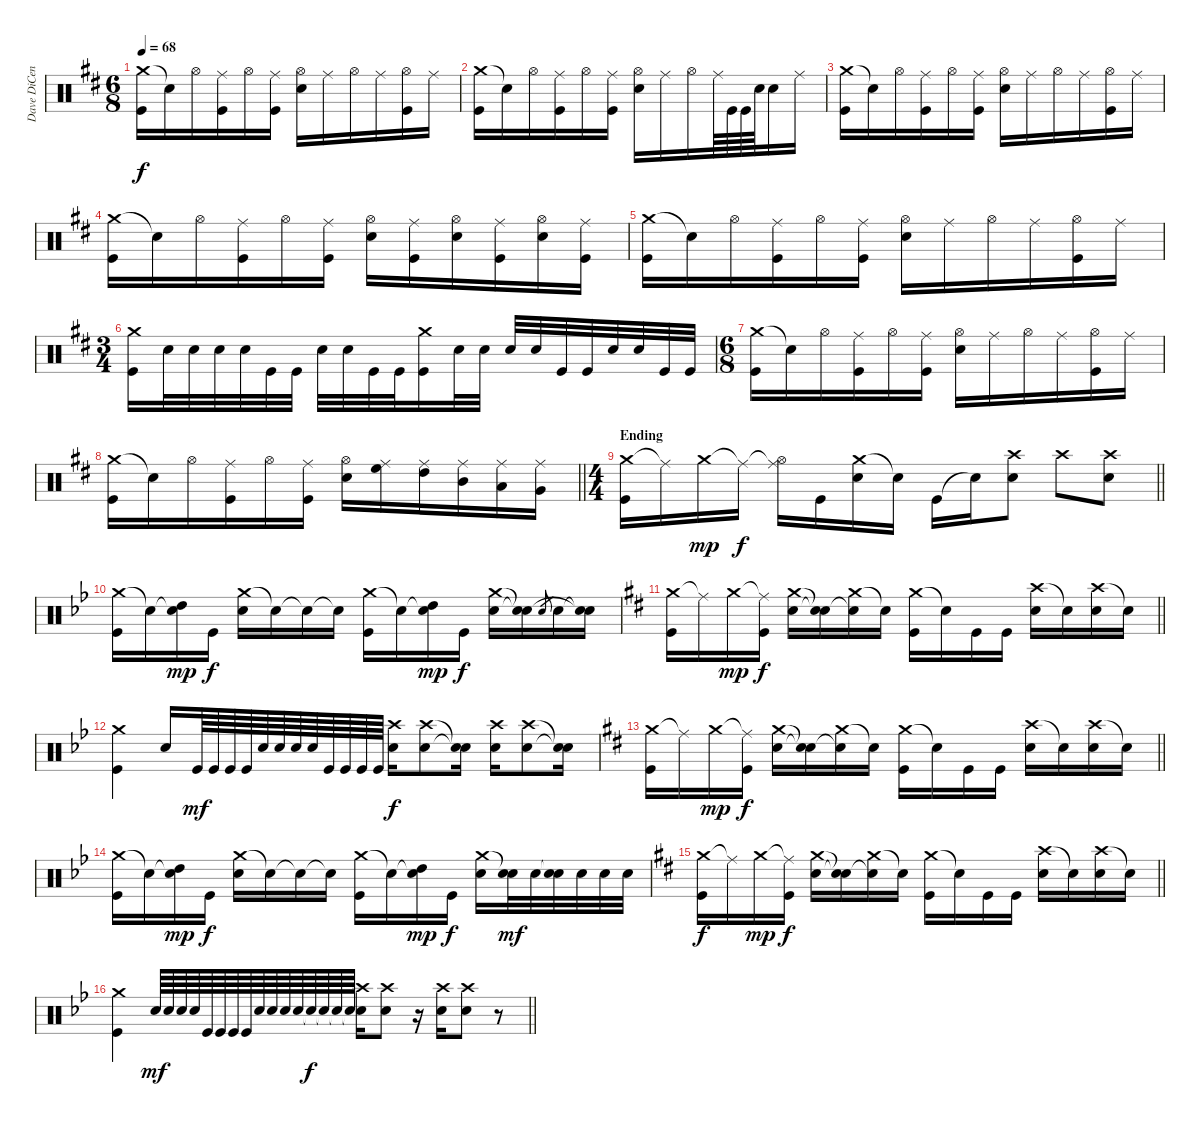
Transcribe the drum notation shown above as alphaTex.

\track ("Dave DiCenso" "Dave DiCen") {instrument percussion}
\staff {score}
\articulation defaults
\ts (6 8)
\tempo 68
\clef neutral
\ks d
("Crash medium (hit)" "Kick (hit)").16{dy f} "Snare (hit)"{t}.16 "Hi-Hat (open)".16 ("Ride (middle)" "Kick (hit)").16 "Hi-Hat (open)".16 ("Ride (middle)" "Kick (hit)").16 ("Hi-Hat (open)" "Electric Snare (hit)").16 "Ride (middle)".16 "Hi-Hat (open)".16 "Ride (middle)".16 ("Hi-Hat (open)" "Kick (hit)").16 "Ride (middle)".16 |
("Crash medium (hit)" "Kick (hit)").16 "Snare (hit)"{t}.16 "Hi-Hat (open)".16 ("Ride (middle)" "Kick (hit)").16 "Hi-Hat (open)".16 ("Ride (middle)" "Kick (hit)").16 ("Hi-Hat (open)" "Electric Snare (hit)").16 "Ride (middle)".16 "Hi-Hat (open)".16 "Ride (middle)".64 "Kick (hit)".64 "Kick (hit)".64 "Electric Snare (hit)".64 "Electric Snare (hit)".16 "Ride (middle)".16 |
("Crash medium (hit)" "Kick (hit)").16 "Snare (hit)"{t}.16 "Hi-Hat (open)".16 ("Ride (middle)" "Kick (hit)").16 "Hi-Hat (open)".16 ("Ride (middle)" "Kick (hit)").16 ("Hi-Hat (open)" "Electric Snare (hit)").16 "Ride (middle)".16 "Hi-Hat (open)".16 "Ride (middle)".16 ("Hi-Hat (open)" "Kick (hit)").16 "Ride (middle)".16 |
("Crash medium (hit)" "Kick (hit)").16 "Snare (hit)"{t}.16 "Hi-Hat (open)".16 ("Ride (middle)" "Kick (hit)").16 "Hi-Hat (open)".16 ("Ride (middle)" "Kick (hit)").16 ("Hi-Hat (open)" "Electric Snare (hit)").16 ("Ride (middle)" "Kick (hit)").16 ("Hi-Hat (open)" "Electric Snare (hit)").16 ("Ride (middle)" "Kick (hit)").16 ("Hi-Hat (open)" "Electric Snare (hit)").16 ("Ride (middle)" "Kick (hit)").16 |
("Crash medium (hit)" "Kick (hit)").16 "Snare (hit)"{t}.16 "Hi-Hat (open)".16 ("Ride (middle)" "Kick (hit)").16 "Hi-Hat (open)".16 ("Ride (middle)" "Kick (hit)").16 ("Hi-Hat (open)" "Electric Snare (hit)").16 "Ride (middle)".16 "Hi-Hat (open)".16 "Ride (middle)".16 ("Hi-Hat (open)" "Kick (hit)").16 "Ride (middle)".16 |
\ts (3 4)
("Crash medium (hit)" "Kick (hit)").16 "Electric Snare (hit)".32 "Electric Snare (hit)".32 "Electric Snare (hit)".32 "Electric Snare (hit)".32 "Kick (hit)".32 "Kick (hit)".32 "Electric Snare (hit)".32 "Electric Snare (hit)".32 "Kick (hit)".32 "Kick (hit)".32 ("Crash medium (hit)" "Kick (hit)").16 "Electric Snare (hit)".32 "Electric Snare (hit)".32 "Electric Snare (hit)".32 "Electric Snare (hit)".32 "Kick (hit)".32 "Kick (hit)".32 "Electric Snare (hit)".32 "Electric Snare (hit)".32 "Kick (hit)".32 "Kick (hit)".32 |
\ts (6 8)
("Crash medium (hit)" "Kick (hit)").16 "Snare (hit)"{t}.16 "Hi-Hat (open)".16 ("Ride (middle)" "Kick (hit)").16 "Hi-Hat (open)".16 ("Ride (middle)" "Kick (hit)").16 ("Hi-Hat (open)" "Electric Snare (hit)").16 "Ride (middle)".16 "Hi-Hat (open)".16 "Ride (middle)".16 ("Hi-Hat (open)" "Kick (hit)").16 "Ride (middle)".16 |
\barLineRight lightlight
("Crash medium (hit)" "Kick (hit)").16 "Snare (hit)"{t}.16 "Hi-Hat (open)".16 ("Ride (middle)" "Kick (hit)").16 "Hi-Hat (open)".16 ("Ride (middle)" "Kick (hit)").16 ("Hi-Hat (open)" "Electric Snare (hit)").16 ("Ride (middle)" "High Floor Tom (hit)").16 ("Ride (middle)" "High Tom (hit)").16 ("Ride (middle)" "Mid Tom (hit)").16 ("Ride (middle)" "Low Tom (hit)").16 ("Ride (middle)" "Very Low Tom (hit)").16 |
\ts (4 4)
\section ("" "Ending")
\barLineRight lightlight
("Crash medium (hit)" "Kick (hit)").16 "Ride (middle)"{t}.16 "Crash medium (hit)".16{dy mp} "Ride (middle)"{t}.16{dy f} ("Ride (middle)"{t} "Hi-Hat (open)").16 "Kick (hit)".16 ("Crash medium (hit)" "Electric Snare (hit)").16 "Snare (hit)"{t}.16 "Kick (hit)".16 "Snare (hit)"{t}.16 ("Crash high (hit)" "Electric Snare (hit)").8 "Crash high (hit)".8 ("Crash high (hit)" "Electric Snare (hit)").8 |
\ks bb
("Crash medium (hit)" "Kick (hit)").16 "Snare (hit)"{t}.16 ("Snare (hit)"{t} "High Tom (hit)").16{dy mp} "Kick (hit)".16{dy f} ("Crash medium (hit)" "Electric Snare (hit)").16 "Snare (hit)"{t}.16 "Snare (hit)"{t}.16 "Snare (hit)"{t}.16 ("Crash medium (hit)" "Kick (hit)").16 "Snare (hit)"{t}.16 ("Snare (hit)"{t} "High Tom (hit)").16{dy mp} "Kick (hit)".16{dy f} ("Crash medium (hit)" "Electric Snare (hit)").16 ("Snare (hit)"{t} "Snare (hit)"{t}).16 "Electric Snare (hit)".8{gr} "Electric Snare (hit)".16 ("Snare (hit)"{t} "Snare (hit)"{t}).16 |
\barLineRight lightlight
\ks d
("Crash medium (hit)" "Kick (hit)").16 "Ride (middle)"{t}.16 "Crash medium (hit)".16{dy mp} ("Ride (middle)"{t} "Kick (hit)").16{dy f} ("Crash medium (hit)" "Electric Snare (hit)").16 ("Snare (hit)"{t} "Snare (hit)"{t}).16 ("Crash medium (hit)" "Electric Snare (hit)"{t}).16 "Snare (hit)"{t}.16 ("Crash medium (hit)" "Kick (hit)").16 "Snare (hit)"{t}.16 "Kick (hit)".16 "Kick (hit)".16 ("Crash high (hit)" "Electric Snare (hit)").16 "Snare (hit)"{t}.16 ("Crash high (hit)" "Electric Snare (hit)").16 "Snare (hit)"{t}.16 |
\ks bb
("Crash medium (hit)" "Kick (hit)").4 "Electric Snare (hit)".16 "Kick (hit)".64{dy mf} "Kick (hit)".64 "Kick (hit)".64 "Kick (hit)".64 "Electric Snare (hit)".64 "Electric Snare (hit)".64 "Electric Snare (hit)".64 "Electric Snare (hit)".64 "Kick (hit)".64 "Kick (hit)".64 "Kick (hit)".64 "Kick (hit)".64 ("Crash high (hit)" "Electric Snare (hit)").16{dy f} ("Crash high (hit)" "Electric Snare (hit)").8 ("Snare (hit)"{t} "Snare (hit)"{t}).16 ("Crash high (hit)" "Electric Snare (hit)").16 ("Crash high (hit)" "Electric Snare (hit)").8 ("Snare (hit)"{t} "Snare (hit)"{t}).16 |
\barLineRight lightlight
\ks d
("Crash medium (hit)" "Kick (hit)").16 "Ride (middle)"{t}.16 "Crash medium (hit)".16{dy mp} ("Ride (middle)"{t} "Kick (hit)").16{dy f} ("Crash medium (hit)" "Electric Snare (hit)").16 ("Snare (hit)"{t} "Snare (hit)"{t}).16 ("Crash medium (hit)" "Electric Snare (hit)"{t}).16 "Snare (hit)"{t}.16 ("Crash medium (hit)" "Kick (hit)").16 "Snare (hit)"{t}.16 "Kick (hit)".16 "Kick (hit)".16 ("Crash high (hit)" "Electric Snare (hit)").16 "Snare (hit)"{t}.16 ("Crash high (hit)" "Electric Snare (hit)").16 "Snare (hit)"{t}.16 |
\ks bb
("Crash medium (hit)" "Kick (hit)").16 "Snare (hit)"{t}.16 ("Snare (hit)"{t} "High Tom (hit)").16{dy mp} "Kick (hit)".16{dy f} ("Crash medium (hit)" "Electric Snare (hit)").16 "Snare (hit)"{t}.16 "Snare (hit)"{t}.16 "Snare (hit)"{t}.16 ("Crash medium (hit)" "Kick (hit)").16 "Snare (hit)"{t}.16 ("Snare (hit)"{t} "High Tom (hit)").16{dy mp} "Kick (hit)".16{dy f} ("Crash medium (hit)" "Electric Snare (hit)").16 ("Snare (hit)"{t} "Electric Snare (hit)").32{dy mf} "Electric Snare (hit)".32 ("Snare (hit)"{t} "Electric Snare (hit)").32 "Electric Snare (hit)".32 "Electric Snare (hit)".32 "Electric Snare (hit)".32 |
\barLineRight lightlight
\ks d
("Crash medium (hit)" "Kick (hit)").16{dy f} "Ride (middle)"{t}.16 "Crash medium (hit)".16{dy mp} ("Ride (middle)"{t} "Kick (hit)").16{dy f} ("Crash medium (hit)" "Electric Snare (hit)").16 ("Snare (hit)"{t} "Snare (hit)"{t}).16 ("Crash medium (hit)" "Electric Snare (hit)"{t}).16 "Snare (hit)"{t}.16 ("Crash medium (hit)" "Kick (hit)").16 "Snare (hit)"{t}.16 "Kick (hit)".16 "Kick (hit)".16 ("Crash high (hit)" "Electric Snare (hit)").16 "Snare (hit)"{t}.16 ("Crash high (hit)" "Electric Snare (hit)").16 "Snare (hit)"{t}.16 |
\barLineRight lightlight
\ks bb
("Crash medium (hit)" "Kick (hit)").4 "Electric Snare (hit)".64{dy mf} "Electric Snare (hit)".64 "Electric Snare (hit)".64 "Electric Snare (hit)".64 "Kick (hit)".64 "Kick (hit)".64 "Kick (hit)".64 "Kick (hit)".64 "Electric Snare (hit)".64 "Electric Snare (hit)".64 "Electric Snare (hit)".64 "Electric Snare (hit)".64 "Snare (hit)"{t}.64{dy f} "Snare (hit)"{t}.64 "Snare (hit)"{t}.64 "Snare (hit)"{t}.64 ("Crash high (hit)" "Electric Snare (hit)").16 ("Crash high (hit)" "Electric Snare (hit)").8 r.16 ("Crash high (hit)" "Electric Snare (hit)").16 ("Crash high (hit)" "Electric Snare (hit)").8 r.8
